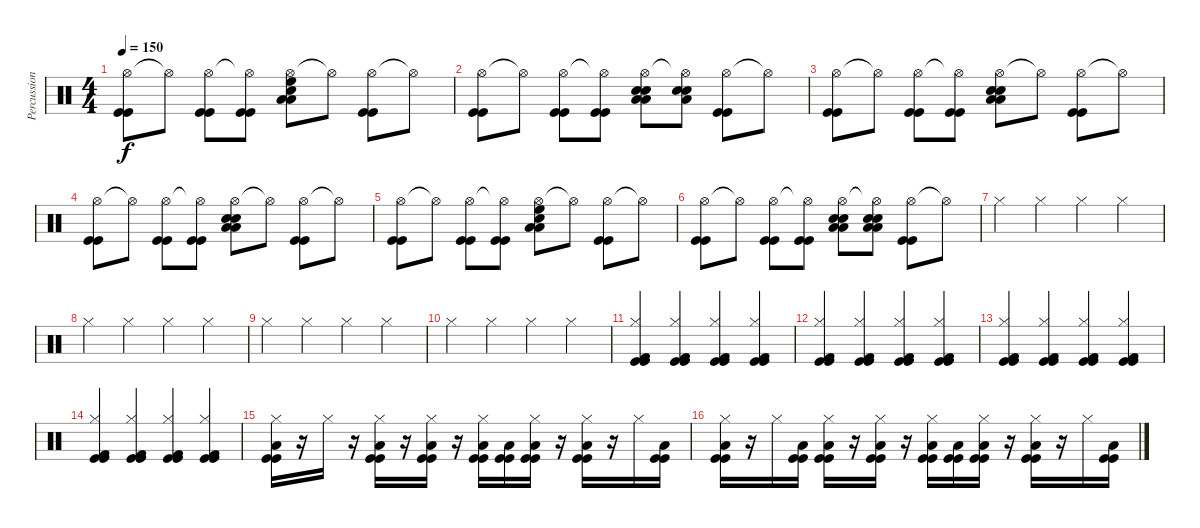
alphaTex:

\track ("Percussion" "Percussion") {instrument percussion}
\staff {score}
\articulation defaults
\ts (4 4)
\tempo 150
\clef neutral
\ks c
("Hi-Hat (open)" "Kick (hit)" "Kick (hit)").8{dy f} "Hi-Hat (open)"{t}.8 ("Hi-Hat (open)" "Kick (hit)" "Kick (hit)").8 ("Hi-Hat (open)"{t} "Kick (hit)" "Kick (hit)").8 ("Hi-Hat (open)" "Electric Snare (hit)" "High Floor Tom (hit)" "Low Tom (hit)" "Low Tom (hit)").8 "Hi-Hat (open)"{t}.8 ("Hi-Hat (open)" "Kick (hit)" "Kick (hit)").8 "Hi-Hat (open)"{t}.8 |
("Hi-Hat (open)" "Kick (hit)" "Kick (hit)").8 "Hi-Hat (open)"{t}.8 ("Hi-Hat (open)" "Kick (hit)" "Kick (hit)").8 ("Hi-Hat (open)"{t} "Kick (hit)" "Kick (hit)").8 ("Hi-Hat (open)" "Electric Snare (hit)" "Electric Snare (hit)" "Low Tom (hit)" "Low Tom (hit)").8 ("Hi-Hat (open)"{t} "Electric Snare (hit)" "Electric Snare (hit)" "Low Tom (hit)").8 ("Hi-Hat (open)" "Kick (hit)" "Kick (hit)").8 "Hi-Hat (open)"{t}.8 |
("Hi-Hat (open)" "Kick (hit)" "Kick (hit)").8 "Hi-Hat (open)"{t}.8 ("Hi-Hat (open)" "Kick (hit)" "Kick (hit)").8 ("Hi-Hat (open)"{t} "Kick (hit)" "Kick (hit)").8 ("Hi-Hat (open)" "Electric Snare (hit)" "Electric Snare (hit)" "Low Tom (hit)" "Low Tom (hit)").8 "Hi-Hat (open)"{t}.8 ("Hi-Hat (open)" "Kick (hit)" "Kick (hit)").8 "Hi-Hat (open)"{t}.8 |
("Hi-Hat (open)" "Kick (hit)" "Kick (hit)").8 "Hi-Hat (open)"{t}.8 ("Hi-Hat (open)" "Kick (hit)" "Kick (hit)").8 ("Hi-Hat (open)"{t} "Kick (hit)" "Kick (hit)").8 ("Hi-Hat (open)" "Electric Snare (hit)" "Electric Snare (hit)" "Low Tom (hit)" "Low Tom (hit)").8 "Hi-Hat (open)"{t}.8 ("Hi-Hat (open)" "Kick (hit)" "Kick (hit)").8 "Hi-Hat (open)"{t}.8 |
("Hi-Hat (open)" "Kick (hit)" "Kick (hit)").8 "Hi-Hat (open)"{t}.8 ("Hi-Hat (open)" "Kick (hit)" "Kick (hit)").8 ("Hi-Hat (open)"{t} "Kick (hit)" "Kick (hit)").8 ("Hi-Hat (open)" "Electric Snare (hit)" "High Floor Tom (hit)" "Low Tom (hit)" "Low Tom (hit)").8 "Hi-Hat (open)"{t}.8 ("Hi-Hat (open)" "Kick (hit)" "Kick (hit)").8 "Hi-Hat (open)"{t}.8 |
("Hi-Hat (open)" "Kick (hit)" "Kick (hit)").8 "Hi-Hat (open)"{t}.8 ("Hi-Hat (open)" "Kick (hit)" "Kick (hit)").8 ("Hi-Hat (open)"{t} "Kick (hit)" "Kick (hit)").8 ("Hi-Hat (open)" "Electric Snare (hit)" "Electric Snare (hit)" "Low Tom (hit)" "Low Tom (hit)").8 ("Hi-Hat (open)"{t} "Electric Snare (hit)" "Electric Snare (hit)" "Low Tom (hit)" "Low Tom (hit)").8 ("Hi-Hat (open)" "Kick (hit)" "Kick (hit)").8 "Hi-Hat (open)"{t}.8 |
"Hi-Hat (closed)".4 "Hi-Hat (closed)".4 "Hi-Hat (closed)".4 "Hi-Hat (closed)".4 |
"Hi-Hat (closed)".4 "Hi-Hat (closed)".4 "Hi-Hat (closed)".4 "Hi-Hat (closed)".4 |
"Hi-Hat (closed)".4 "Hi-Hat (closed)".4 "Hi-Hat (closed)".4 "Hi-Hat (closed)".4 |
"Hi-Hat (closed)".4 "Hi-Hat (closed)".4 "Hi-Hat (closed)".4 "Hi-Hat (closed)".4 |
("Hi-Hat (closed)" "Kick (hit)" "Kick (hit)" "Kick (hit) 2").4 ("Hi-Hat (closed)" "Kick (hit)" "Kick (hit)" "Kick (hit) 2").4 ("Hi-Hat (closed)" "Kick (hit)" "Kick (hit)" "Kick (hit) 2").4 ("Hi-Hat (closed)" "Kick (hit)" "Kick (hit)" "Kick (hit) 2").4 |
("Hi-Hat (closed)" "Kick (hit)" "Kick (hit)" "Kick (hit) 2").4 ("Hi-Hat (closed)" "Kick (hit)" "Kick (hit)" "Kick (hit) 2").4 ("Hi-Hat (closed)" "Kick (hit)" "Kick (hit)" "Kick (hit) 2").4 ("Hi-Hat (closed)" "Kick (hit)" "Kick (hit)" "Kick (hit) 2").4 |
("Hi-Hat (closed)" "Kick (hit)" "Kick (hit)" "Kick (hit) 2").4 ("Hi-Hat (closed)" "Kick (hit)" "Kick (hit)" "Kick (hit) 2").4 ("Hi-Hat (closed)" "Kick (hit)" "Kick (hit)" "Kick (hit) 2").4 ("Hi-Hat (closed)" "Kick (hit)" "Kick (hit)" "Kick (hit) 2").4 |
("Hi-Hat (closed)" "Kick (hit)" "Kick (hit)" "Kick (hit) 2").4 ("Hi-Hat (closed)" "Kick (hit)" "Kick (hit)" "Kick (hit) 2").4 ("Hi-Hat (closed)" "Kick (hit)" "Kick (hit)" "Kick (hit) 2").4 ("Hi-Hat (closed)" "Kick (hit)" "Kick (hit)" "Kick (hit) 2").4 |
("Hi-Hat (closed)" "Kick (hit)" "Kick (hit)" "Low Tom (hit)").16 r.16 "Hi-Hat (closed)".16 r.16 ("Hi-Hat (closed)" "Kick (hit)" "Kick (hit)" "Low Tom (hit)").16 r.16 ("Hi-Hat (closed)" "Kick (hit)" "Kick (hit)" "Low Tom (hit)").16 r.16 ("Hi-Hat (closed)" "Kick (hit)" "Kick (hit)" "Low Tom (hit)").16 ("Kick (hit)" "Kick (hit)" "Low Tom (hit)").16 ("Hi-Hat (closed)" "Kick (hit)" "Kick (hit)" "Low Tom (hit)").16 r.16 ("Hi-Hat (closed)" "Kick (hit)" "Kick (hit)" "Low Tom (hit)").16 r.16 "Hi-Hat (closed)".16 ("Kick (hit)" "Kick (hit)" "Low Tom (hit)").16 |
("Hi-Hat (closed)" "Kick (hit)" "Kick (hit)" "Low Tom (hit)").16 r.16 "Hi-Hat (closed)".16 ("Kick (hit)" "Kick (hit)" "Low Tom (hit)").16 ("Hi-Hat (closed)" "Kick (hit)" "Kick (hit)" "Low Tom (hit)").16 r.16 ("Hi-Hat (closed)" "Kick (hit)" "Kick (hit)" "Low Tom (hit)").16 r.16 ("Hi-Hat (closed)" "Kick (hit)" "Kick (hit)" "Low Tom (hit)").16 ("Kick (hit)" "Kick (hit)" "Low Tom (hit)").16 ("Hi-Hat (closed)" "Kick (hit)" "Kick (hit)" "Low Tom (hit)").16 r.16 ("Hi-Hat (closed)" "Kick (hit)" "Kick (hit)" "Low Tom (hit)").16 r.16 "Hi-Hat (closed)".16 ("Kick (hit)" "Kick (hit)" "Low Tom (hit)").16
